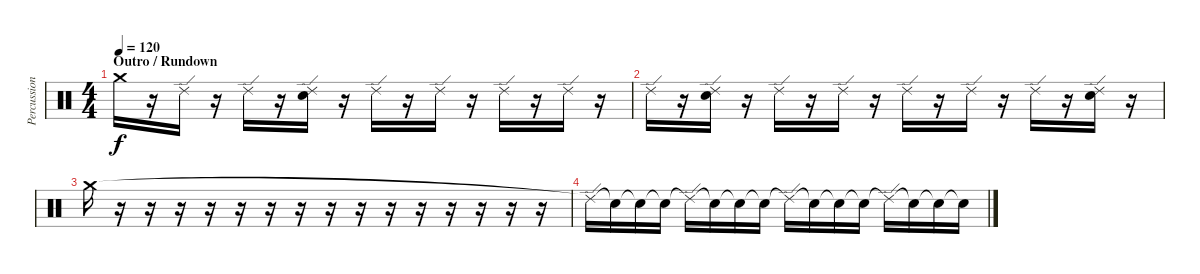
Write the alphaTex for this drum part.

\track ("Percussion" "Percussion") {instrument percussion}
\staff {score}
\articulation defaults
\ts (4 4)
\section ("" "Outro / Rundown")
\tempo 120
\clef neutral
\ks c "Crash medium (hit)".16{dy f}
r.16 "Ride (edge) 2".16 r.16 "Ride (edge) 2".16 r.16 ("Ride (edge) 2" "Electric Snare (hit)").16 r.16 "Ride (edge) 2".16 r.16 "Ride (edge) 2".16 r.16 "Ride (edge) 2".16 r.16 "Ride (edge) 2".16 r.16 |
"Ride (edge) 2".16 r.16 ("Ride (edge) 2" "Electric Snare (hit)").16 r.16 "Ride (edge) 2".16 r.16 "Ride (edge) 2".16 r.16 "Ride (edge) 2".16 r.16 "Ride (edge) 2".16 r.16 "Ride (edge) 2".16 r.16 ("Ride (edge) 2" "Electric Snare (hit)").16 r.16 |
"Crash medium (hit)".16 r.16 r.16 r.16 r.16 r.16 r.16 r.16 r.16 r.16 r.16 r.16 r.16 r.16 r.16 r.16 |
"Ride (edge) 2"{t}.16 "Snare (hit)"{t}.16 "Snare (hit)"{t}.16 "Snare (hit)"{t}.16 "Ride (edge) 2"{t}.16 "Snare (hit)"{t}.16 "Snare (hit)"{t}.16 "Snare (hit)"{t}.16 "Ride (edge) 2"{t}.16 "Snare (hit)"{t}.16 "Snare (hit)"{t}.16 "Snare (hit)"{t}.16 "Ride (edge) 2"{t}.16 "Snare (hit)"{t}.16 "Snare (hit)"{t}.16 "Snare (hit)"{t}.16
